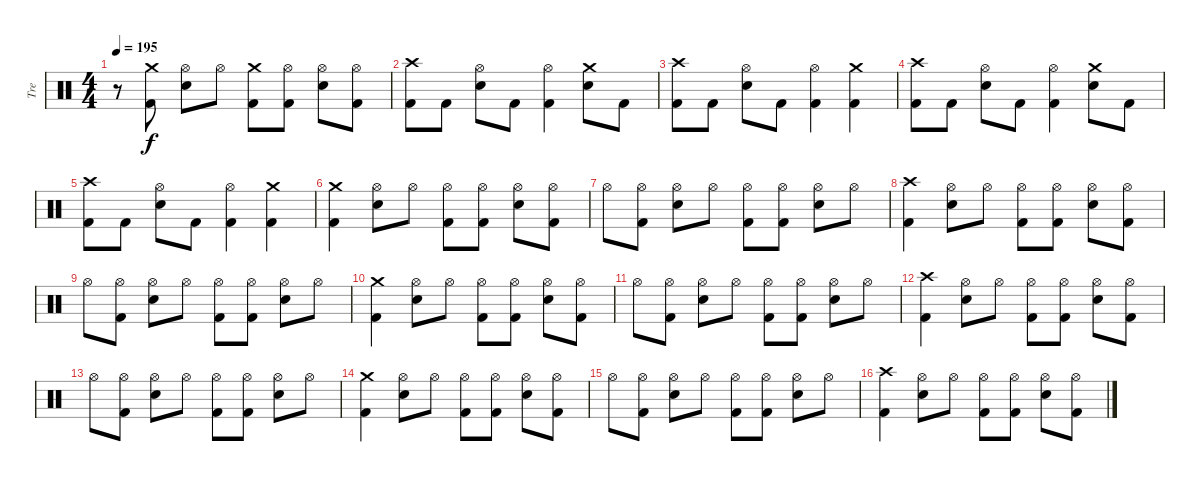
\track ("Tre" "Tre") {instrument percussion}
\staff {score}
\articulation defaults
\ts (4 4)
\tempo 195
\clef neutral
\ks c
r.8{dy f} ("Crash medium (hit)" "Kick (hit) 2").8 ("Hi-Hat (open)" "Electric Snare (hit)").8 "Hi-Hat (open)".8 ("Crash medium (hit)" "Kick (hit) 2").8 ("Hi-Hat (open)" "Kick (hit) 2").8 ("Hi-Hat (open)" "Electric Snare (hit)").8 ("Hi-Hat (open)" "Kick (hit) 2").8 |
("Crash high (hit)" "Kick (hit) 2").8 "Kick (hit) 2".8 ("Hi-Hat (open)" "Electric Snare (hit)").8 "Kick (hit) 2".8 ("Hi-Hat (open)" "Kick (hit) 2").4 ("Crash medium (hit)" "Electric Snare (hit)").8 "Kick (hit) 2".8 |
("Crash high (hit)" "Kick (hit) 2").8 "Kick (hit) 2".8 ("Hi-Hat (open)" "Electric Snare (hit)").8 "Kick (hit) 2".8 ("Hi-Hat (open)" "Kick (hit) 2").4 ("Crash medium (hit)" "Kick (hit) 2").4 |
("Crash high (hit)" "Kick (hit) 2").8 "Kick (hit) 2".8 ("Hi-Hat (open)" "Electric Snare (hit)").8 "Kick (hit) 2".8 ("Hi-Hat (open)" "Kick (hit) 2").4 ("Crash medium (hit)" "Electric Snare (hit)").8 "Kick (hit) 2".8 |
("Crash high (hit)" "Kick (hit) 2").8 "Kick (hit) 2".8 ("Hi-Hat (open)" "Electric Snare (hit)").8 "Kick (hit) 2".8 ("Hi-Hat (open)" "Kick (hit) 2").4 ("Crash medium (hit)" "Kick (hit) 2").4 |
("Crash medium (hit)" "Kick (hit) 2").4 ("Hi-Hat (open)" "Electric Snare (hit)").8 "Hi-Hat (open)".8 ("Hi-Hat (open)" "Kick (hit) 2").8 ("Hi-Hat (open)" "Kick (hit) 2").8 ("Hi-Hat (open)" "Electric Snare (hit)").8 ("Hi-Hat (open)" "Kick (hit) 2").8 |
"Hi-Hat (open)".8 ("Hi-Hat (open)" "Kick (hit) 2").8 ("Hi-Hat (open)" "Electric Snare (hit)").8 "Hi-Hat (open)".8 ("Hi-Hat (open)" "Kick (hit) 2").8 ("Hi-Hat (open)" "Kick (hit) 2").8 ("Hi-Hat (open)" "Electric Snare (hit)").8 "Hi-Hat (open)".8 |
("Crash high (hit)" "Kick (hit) 2").4 ("Hi-Hat (open)" "Electric Snare (hit)").8 "Hi-Hat (open)".8 ("Hi-Hat (open)" "Kick (hit) 2").8 ("Hi-Hat (open)" "Kick (hit) 2").8 ("Hi-Hat (open)" "Electric Snare (hit)").8 ("Hi-Hat (open)" "Kick (hit) 2").8 |
"Hi-Hat (open)".8 ("Hi-Hat (open)" "Kick (hit) 2").8 ("Hi-Hat (open)" "Electric Snare (hit)").8 "Hi-Hat (open)".8 ("Hi-Hat (open)" "Kick (hit) 2").8 ("Hi-Hat (open)" "Kick (hit) 2").8 ("Hi-Hat (open)" "Electric Snare (hit)").8 "Hi-Hat (open)".8 |
("Crash medium (hit)" "Kick (hit) 2").4 ("Hi-Hat (open)" "Electric Snare (hit)").8 "Hi-Hat (open)".8 ("Hi-Hat (open)" "Kick (hit) 2").8 ("Hi-Hat (open)" "Kick (hit) 2").8 ("Hi-Hat (open)" "Electric Snare (hit)").8 ("Hi-Hat (open)" "Kick (hit) 2").8 |
"Hi-Hat (open)".8 ("Hi-Hat (open)" "Kick (hit) 2").8 ("Hi-Hat (open)" "Electric Snare (hit)").8 "Hi-Hat (open)".8 ("Hi-Hat (open)" "Kick (hit) 2").8 ("Hi-Hat (open)" "Kick (hit) 2").8 ("Hi-Hat (open)" "Electric Snare (hit)").8 "Hi-Hat (open)".8 |
("Crash high (hit)" "Kick (hit) 2").4 ("Hi-Hat (open)" "Electric Snare (hit)").8 "Hi-Hat (open)".8 ("Hi-Hat (open)" "Kick (hit) 2").8 ("Hi-Hat (open)" "Kick (hit) 2").8 ("Hi-Hat (open)" "Electric Snare (hit)").8 ("Hi-Hat (open)" "Kick (hit) 2").8 |
"Hi-Hat (open)".8 ("Hi-Hat (open)" "Kick (hit) 2").8 ("Hi-Hat (open)" "Electric Snare (hit)").8 "Hi-Hat (open)".8 ("Hi-Hat (open)" "Kick (hit) 2").8 ("Hi-Hat (open)" "Kick (hit) 2").8 ("Hi-Hat (open)" "Electric Snare (hit)").8 "Hi-Hat (open)".8 |
("Crash medium (hit)" "Kick (hit) 2").4 ("Hi-Hat (open)" "Electric Snare (hit)").8 "Hi-Hat (open)".8 ("Hi-Hat (open)" "Kick (hit) 2").8 ("Hi-Hat (open)" "Kick (hit) 2").8 ("Hi-Hat (open)" "Electric Snare (hit)").8 ("Hi-Hat (open)" "Kick (hit) 2").8 |
"Hi-Hat (open)".8 ("Hi-Hat (open)" "Kick (hit) 2").8 ("Hi-Hat (open)" "Electric Snare (hit)").8 "Hi-Hat (open)".8 ("Hi-Hat (open)" "Kick (hit) 2").8 ("Hi-Hat (open)" "Kick (hit) 2").8 ("Hi-Hat (open)" "Electric Snare (hit)").8 "Hi-Hat (open)".8 |
("Crash high (hit)" "Kick (hit) 2").4 ("Hi-Hat (open)" "Electric Snare (hit)").8 "Hi-Hat (open)".8 ("Hi-Hat (open)" "Kick (hit) 2").8 ("Hi-Hat (open)" "Kick (hit) 2").8 ("Hi-Hat (open)" "Electric Snare (hit)").8 ("Hi-Hat (open)" "Kick (hit) 2").8
